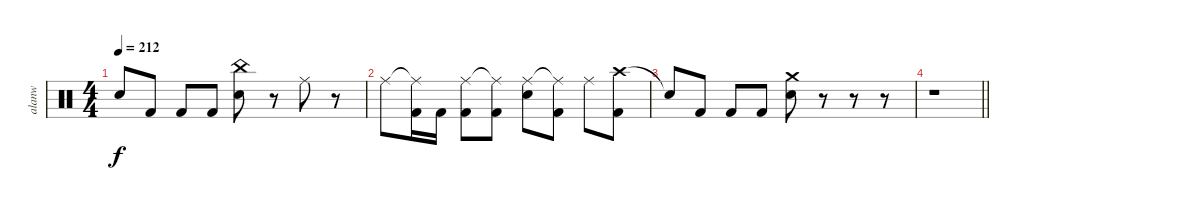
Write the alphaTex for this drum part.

\track ("alanw" "alanw") {instrument percussion}
\staff {score}
\articulation defaults
\ts (4 4)
\tempo 212
\clef neutral
\ks c "Snare (hit)"{t}.8{dy f} "Kick (hit) 2".8 "Kick (hit) 2".8 "Kick (hit) 2".8
("China (hit)" "Electric Snare (hit)").8 r.8 "Ride (middle)".8 r.8 |
"Ride (middle)".8 ("Ride (middle)"{t} "Kick (hit) 2").16 "Kick (hit) 2".16 ("Ride (middle)" "Kick (hit) 2").8 ("Ride (middle)"{t} "Kick (hit) 2").8 ("Ride (middle)" "Electric Snare (hit)").8 ("Ride (middle)"{t} "Kick (hit) 2").8 "Ride (middle)".8 ("Crash high (hit)" "Kick (hit) 2").8 |
"Snare (hit)"{t}.8 "Kick (hit) 2".8 "Kick (hit) 2".8 "Kick (hit) 2".8 ("Crash medium (hit)" "Electric Snare (hit)").8 r.8 r.8 r.8 |
\barLineRight lightlight
r.1
